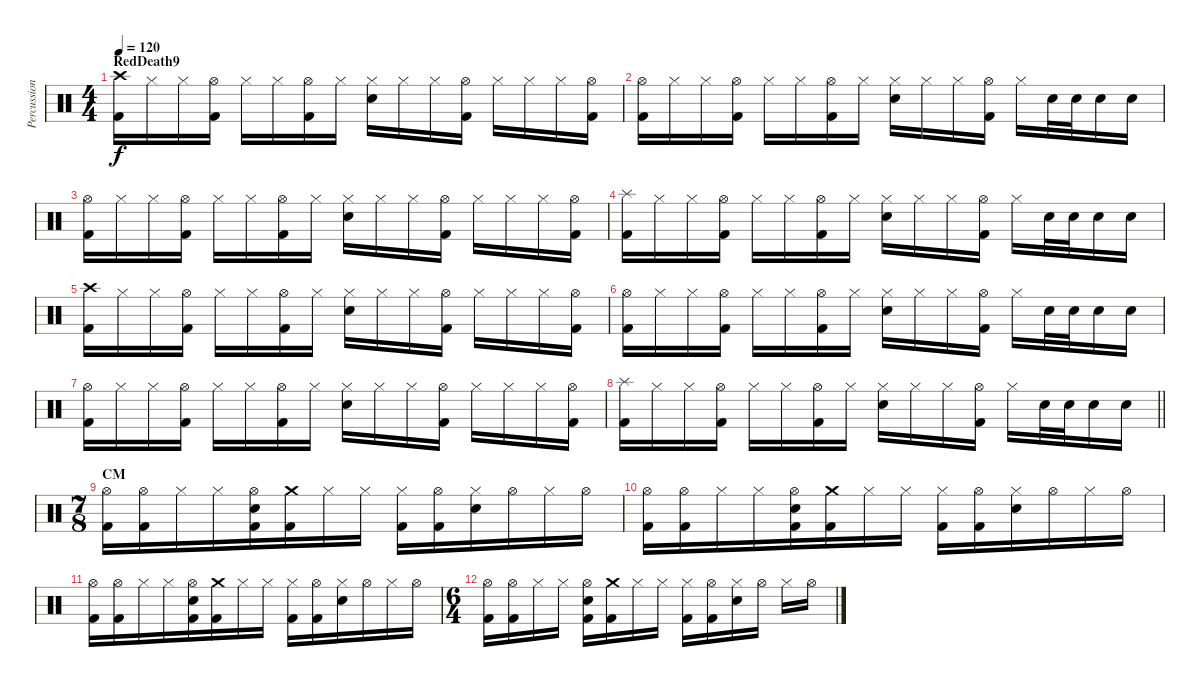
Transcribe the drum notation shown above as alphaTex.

\track ("Percussion" "Percussion") {instrument percussion}
\staff {score}
\articulation defaults
\ts (4 4)
\section ("" "RedDeath9")
\tempo 120
\clef neutral
\ks c
("Crash high (hit)" "Kick (hit) 2").16{dy f} "Hi-Hat (closed)".16 "Hi-Hat (closed)".16 ("Hi-Hat (open)" "Kick (hit) 2").16 "Hi-Hat (closed)".16 "Hi-Hat (closed)".16 ("Hi-Hat (open)" "Kick (hit) 2").16 "Hi-Hat (closed)".16 ("Hi-Hat (closed)" "Electric Snare (hit)").16 "Hi-Hat (closed)".16 "Hi-Hat (closed)".16 ("Hi-Hat (open)" "Kick (hit) 2").16 "Hi-Hat (closed)".16 "Hi-Hat (closed)".16 "Hi-Hat (closed)".16 ("Hi-Hat (open)" "Kick (hit) 2").16 |
("Hi-Hat (open)" "Kick (hit) 2").16 "Hi-Hat (closed)".16 "Hi-Hat (closed)".16 ("Hi-Hat (open)" "Kick (hit) 2").16 "Hi-Hat (closed)".16 "Hi-Hat (closed)".16 ("Hi-Hat (open)" "Kick (hit) 2").16 "Hi-Hat (closed)".16 ("Hi-Hat (closed)" "Electric Snare (hit)").16 "Hi-Hat (closed)".16 "Hi-Hat (closed)".16 ("Hi-Hat (open)" "Kick (hit) 2").16 "Hi-Hat (closed)".16 "Electric Snare (hit)".32 "Electric Snare (hit)".32 "Electric Snare (hit)".16 "Electric Snare (hit)".16 |
("Hi-Hat (open)" "Kick (hit) 2").16 "Hi-Hat (closed)".16 "Hi-Hat (closed)".16 ("Hi-Hat (open)" "Kick (hit) 2").16 "Hi-Hat (closed)".16 "Hi-Hat (closed)".16 ("Hi-Hat (open)" "Kick (hit) 2").16 "Hi-Hat (closed)".16 ("Hi-Hat (closed)" "Electric Snare (hit)").16 "Hi-Hat (closed)".16 "Hi-Hat (closed)".16 ("Hi-Hat (open)" "Kick (hit) 2").16 "Hi-Hat (closed)".16 "Hi-Hat (closed)".16 "Hi-Hat (closed)".16 ("Hi-Hat (open)" "Kick (hit) 2").16 |
("Splash (hit)" "Kick (hit) 2").16 "Hi-Hat (closed)".16 "Hi-Hat (closed)".16 ("Hi-Hat (open)" "Kick (hit) 2").16 "Hi-Hat (closed)".16 "Hi-Hat (closed)".16 ("Hi-Hat (open)" "Kick (hit) 2").16 "Hi-Hat (closed)".16 ("Hi-Hat (closed)" "Electric Snare (hit)").16 "Hi-Hat (closed)".16 "Hi-Hat (closed)".16 ("Hi-Hat (open)" "Kick (hit) 2").16 "Hi-Hat (closed)".16 "Electric Snare (hit)".32 "Electric Snare (hit)".32 "Electric Snare (hit)".16 "Electric Snare (hit)".16 |
("Crash high (hit)" "Kick (hit) 2").16 "Hi-Hat (closed)".16 "Hi-Hat (closed)".16 ("Hi-Hat (open)" "Kick (hit) 2").16 "Hi-Hat (closed)".16 "Hi-Hat (closed)".16 ("Hi-Hat (open)" "Kick (hit) 2").16 "Hi-Hat (closed)".16 ("Hi-Hat (closed)" "Electric Snare (hit)").16 "Hi-Hat (closed)".16 "Hi-Hat (closed)".16 ("Hi-Hat (open)" "Kick (hit) 2").16 "Hi-Hat (closed)".16 "Hi-Hat (closed)".16 "Hi-Hat (closed)".16 ("Hi-Hat (open)" "Kick (hit) 2").16 |
("Hi-Hat (open)" "Kick (hit) 2").16 "Hi-Hat (closed)".16 "Hi-Hat (closed)".16 ("Hi-Hat (open)" "Kick (hit) 2").16 "Hi-Hat (closed)".16 "Hi-Hat (closed)".16 ("Hi-Hat (open)" "Kick (hit) 2").16 "Hi-Hat (closed)".16 ("Hi-Hat (closed)" "Electric Snare (hit)").16 "Hi-Hat (closed)".16 "Hi-Hat (closed)".16 ("Hi-Hat (open)" "Kick (hit) 2").16 "Hi-Hat (closed)".16 "Electric Snare (hit)".32 "Electric Snare (hit)".32 "Electric Snare (hit)".16 "Electric Snare (hit)".16 |
("Hi-Hat (open)" "Kick (hit) 2").16 "Hi-Hat (closed)".16 "Hi-Hat (closed)".16 ("Hi-Hat (open)" "Kick (hit) 2").16 "Hi-Hat (closed)".16 "Hi-Hat (closed)".16 ("Hi-Hat (open)" "Kick (hit) 2").16 "Hi-Hat (closed)".16 ("Hi-Hat (closed)" "Electric Snare (hit)").16 "Hi-Hat (closed)".16 "Hi-Hat (closed)".16 ("Hi-Hat (open)" "Kick (hit) 2").16 "Hi-Hat (closed)".16 "Hi-Hat (closed)".16 "Hi-Hat (closed)".16 ("Hi-Hat (open)" "Kick (hit) 2").16 |
\barLineRight lightlight
("Splash (hit)" "Kick (hit) 2").16 "Hi-Hat (closed)".16 "Hi-Hat (closed)".16 ("Hi-Hat (open)" "Kick (hit) 2").16 "Hi-Hat (closed)".16 "Hi-Hat (closed)".16 ("Hi-Hat (open)" "Kick (hit) 2").16 "Hi-Hat (closed)".16 ("Hi-Hat (closed)" "Electric Snare (hit)").16 "Hi-Hat (closed)".16 "Hi-Hat (closed)".16 ("Hi-Hat (open)" "Kick (hit) 2").16 "Hi-Hat (closed)".16 "Electric Snare (hit)".32 "Electric Snare (hit)".32 "Electric Snare (hit)".16 "Electric Snare (hit)".16 |
\ts (7 8)
\section ("" "CM")
("Hi-Hat (open)" "Kick (hit) 2").16 ("Hi-Hat (open)" "Kick (hit) 2").16 "Hi-Hat (closed)".16 "Hi-Hat (closed)".16 ("Hi-Hat (open)" "Electric Snare (hit)" "Kick (hit) 2").16 ("Crash medium (hit)" "Kick (hit) 2").16 "Hi-Hat (closed)".16 "Hi-Hat (closed)".16 ("Hi-Hat (closed)" "Kick (hit) 2").16 ("Hi-Hat (open)" "Kick (hit) 2").16 ("Hi-Hat (closed)" "Electric Snare (hit)").16 "Hi-Hat (open)".16 "Hi-Hat (closed)".16 "Hi-Hat (open)".16 |
("Hi-Hat (open)" "Kick (hit) 2").16 ("Hi-Hat (open)" "Kick (hit) 2").16 "Hi-Hat (closed)".16 "Hi-Hat (closed)".16 ("Hi-Hat (open)" "Electric Snare (hit)" "Kick (hit) 2").16 ("Crash medium (hit)" "Kick (hit) 2").16 "Hi-Hat (closed)".16 "Hi-Hat (closed)".16 ("Hi-Hat (closed)" "Kick (hit) 2").16 ("Hi-Hat (open)" "Kick (hit) 2").16 ("Hi-Hat (closed)" "Electric Snare (hit)").16 "Hi-Hat (open)".16 "Hi-Hat (closed)".16 "Hi-Hat (open)".16 |
("Hi-Hat (open)" "Kick (hit) 2").16 ("Hi-Hat (open)" "Kick (hit) 2").16 "Hi-Hat (closed)".16 "Hi-Hat (closed)".16 ("Hi-Hat (open)" "Electric Snare (hit)" "Kick (hit) 2").16 ("Crash medium (hit)" "Kick (hit) 2").16 "Hi-Hat (closed)".16 "Hi-Hat (closed)".16 ("Hi-Hat (closed)" "Kick (hit) 2").16 ("Hi-Hat (open)" "Kick (hit) 2").16 ("Hi-Hat (closed)" "Electric Snare (hit)").16 "Hi-Hat (open)".16 "Hi-Hat (closed)".16 "Hi-Hat (open)".16 |
\ts (6 4)
("Hi-Hat (open)" "Kick (hit) 2").16 ("Hi-Hat (open)" "Kick (hit) 2").16 "Hi-Hat (closed)".16 "Hi-Hat (closed)".16 ("Hi-Hat (open)" "Electric Snare (hit)" "Kick (hit) 2").16 ("Crash medium (hit)" "Kick (hit) 2").16 "Hi-Hat (closed)".16 "Hi-Hat (closed)".16 ("Hi-Hat (closed)" "Kick (hit) 2").16 ("Hi-Hat (open)" "Kick (hit) 2").16 ("Hi-Hat (closed)" "Electric Snare (hit)").16 "Hi-Hat (open)".16 "Hi-Hat (closed)".16 "Hi-Hat (open)".16
